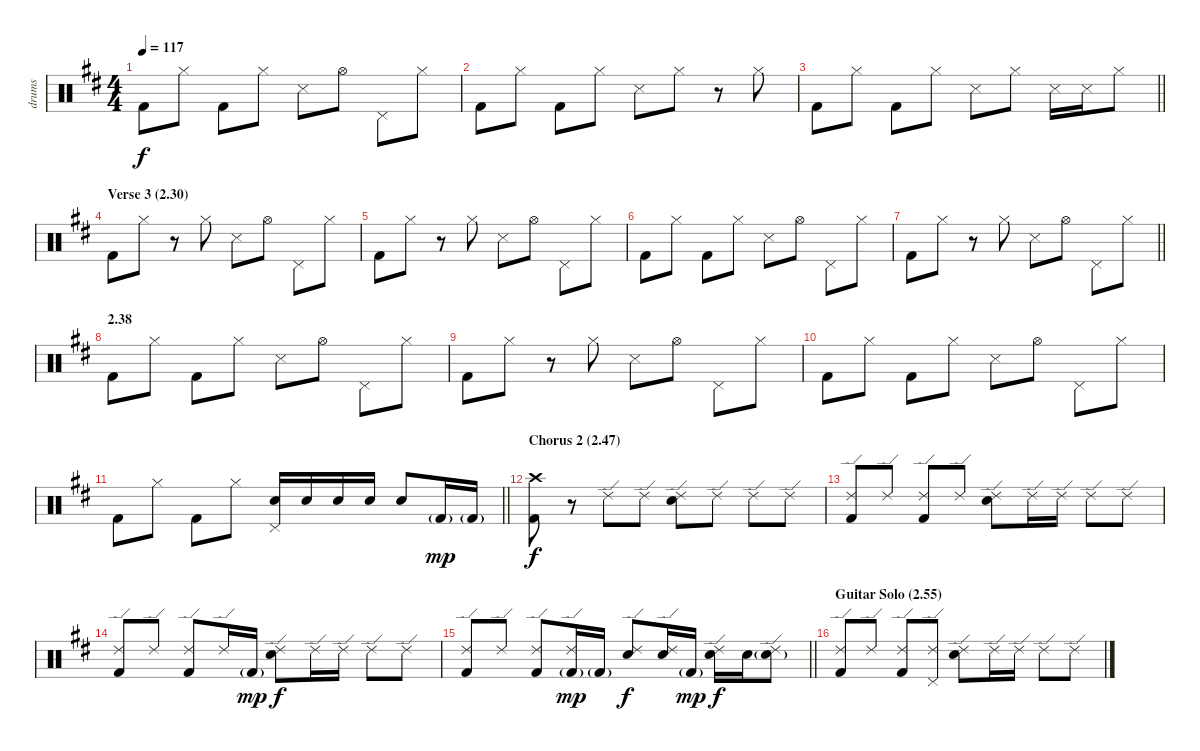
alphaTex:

\track ("drums" "drums") {instrument percussion}
\staff {score}
\articulation defaults
\ts (4 4)
\tempo 117
\clef neutral
\ks d "Kick (hit) 2".8{dy f} "Hi-Hat (closed)".8 "Kick (hit) 2".8 "Hi-Hat (closed)".8 "Snare (side stick) 3".8 "Hi-Hat (open)".8 "Pedal Hi-Hat (hit)".8 "Hi-Hat (closed)".8
|
"Kick (hit) 2".8 "Hi-Hat (closed)".8 "Kick (hit) 2".8 "Hi-Hat (closed)".8 "Snare (side stick) 3".8 "Hi-Hat (closed)".8 r.8 "Hi-Hat (closed)".8 |
\barLineRight lightlight "Kick (hit) 2".8 "Hi-Hat (closed)".8 "Kick (hit) 2".8 "Hi-Hat (closed)".8 "Snare (side stick) 3".8 "Hi-Hat (closed)".8 "Snare (side stick) 3".16 "Snare (side stick) 3".16 "Hi-Hat (closed)".8
|
\section ("" "Verse 3 (2.30)")
"Kick (hit) 2".8 "Hi-Hat (closed)".8 r.8 "Hi-Hat (closed)".8 "Snare (side stick) 3".8 "Hi-Hat (open)".8 "Pedal Hi-Hat (hit)".8 "Hi-Hat (closed)".8 |
"Kick (hit) 2".8 "Hi-Hat (closed)".8 r.8 "Hi-Hat (closed)".8 "Snare (side stick) 3".8 "Hi-Hat (open)".8 "Pedal Hi-Hat (hit)".8 "Hi-Hat (closed)".8 |
"Kick (hit) 2".8 "Hi-Hat (closed)".8 "Kick (hit) 2".8 "Hi-Hat (closed)".8 "Snare (side stick) 3".8 "Hi-Hat (open)".8 "Pedal Hi-Hat (hit)".8 "Hi-Hat (closed)".8 |
\barLineRight lightlight "Kick (hit) 2".8 "Hi-Hat (closed)".8
r.8 "Hi-Hat (closed)".8 "Snare (side stick) 3".8 "Hi-Hat (open)".8 "Pedal Hi-Hat (hit)".8 "Hi-Hat (closed)".8 |
\section ("" "2.38")
"Kick (hit) 2".8 "Hi-Hat (closed)".8 "Kick (hit) 2".8 "Hi-Hat (closed)".8 "Snare (side stick) 3".8 "Hi-Hat (open)".8 "Pedal Hi-Hat (hit)".8 "Hi-Hat (closed)".8 |
"Kick (hit) 2".8 "Hi-Hat (closed)".8 r.8 "Hi-Hat (closed)".8 "Snare (side stick) 3".8 "Hi-Hat (open)".8 "Pedal Hi-Hat (hit)".8 "Hi-Hat (closed)".8 |
"Kick (hit) 2".8 "Hi-Hat (closed)".8 "Kick (hit) 2".8 "Hi-Hat (closed)".8 "Snare (side stick) 3".8 "Hi-Hat (open)".8 "Pedal Hi-Hat (hit)".8 "Hi-Hat (closed)".8 |
\barLineRight lightlight "Kick (hit) 2".8 "Hi-Hat (closed)".8 "Kick (hit) 2".8 "Hi-Hat (closed)".8
("Pedal Hi-Hat (hit)" "Electric Snare (hit)").16 "Electric Snare (hit)".16 "Electric Snare (hit)".16 "Electric Snare (hit)".16 "Electric Snare (hit)".8 "Kick (hit) 2"{g}.16{dy mp} "Kick (hit) 2"{g}.16 |
\section ("" "Chorus 2 (2.47)")
("Crash high (hit)" "Kick (hit) 2").8{dy f} r.8 "Ride (edge) 2".8 "Ride (edge) 2".8 ("Ride (edge) 2" "Electric Snare (hit)").8 "Ride (edge) 2".8 "Ride (edge) 2".8 "Ride (edge) 2".8 |
("Ride (edge) 2" "Kick (hit) 2").8 "Ride (edge) 2".8 ("Ride (edge) 2" "Kick (hit) 2").8 "Ride (edge) 2".8 ("Ride (edge) 2" "Electric Snare (hit)").8 "Ride (edge) 2".16 "Ride (edge) 2".16 "Ride (edge) 2".8 "Ride (edge) 2".8 |
("Ride (edge) 2" "Kick (hit) 2").8 "Ride (edge) 2".8 ("Ride (edge) 2" "Kick (hit) 2").8 "Ride (edge) 2".16 "Kick (hit) 2"{g}.16{dy mp} ("Ride (edge) 2" "Electric Snare (hit)").8{dy f} "Ride (edge) 2".16 "Ride (edge) 2".16 "Ride (edge) 2".8 "Ride (edge) 2".8 |
\barLineRight lightlight
("Ride (edge) 2" "Kick (hit) 2").8 "Ride (edge) 2".8 ("Ride (edge) 2" "Kick (hit) 2").8 ("Ride (edge) 2" "Kick (hit) 2"{g}).16{dy mp} "Kick (hit) 2"{g}.16 ("Ride (edge) 2" "Electric Snare (hit)").8{dy f} ("Ride (edge) 2" "Electric Snare (hit)").16 "Kick (hit) 2"{g}.16{dy mp} ("Ride (edge) 2" "Electric Snare (hit)").16{dy f} "Electric Snare (hit)".16 ("Ride (edge) 2" "Electric Snare (hit)"{g}).8 |
\section ("" "Guitar Solo (2.55)")
("Ride (edge) 2" "Kick (hit) 2").8 "Ride (edge) 2".8 ("Ride (edge) 2" "Kick (hit) 2").8 ("Ride (edge) 2" "Pedal Hi-Hat (hit)").8 ("Ride (edge) 2" "Electric Snare (hit)").8 "Ride (edge) 2".16 "Ride (edge) 2".16 "Ride (edge) 2".8 "Ride (edge) 2".8
